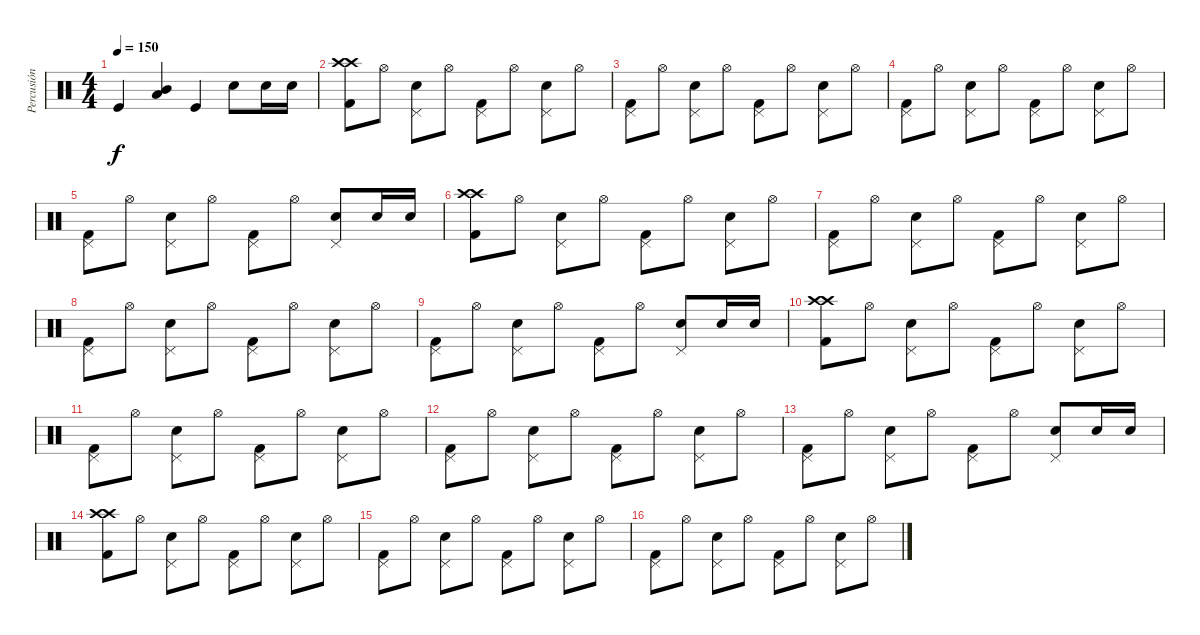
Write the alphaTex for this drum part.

\track ("Percusión" "Percusión") {instrument percussion}
\staff {score}
\articulation defaults
\ts (4 4)
\tempo 150
\clef neutral
\ks c "Kick (hit)".4{dy f}
("Low Tom (hit)" "Mid Tom (hit)").4 "Kick (hit)".4 "Electric Snare (hit)".8 "Electric Snare (hit)".16 "Electric Snare (hit)".16 |
("Crash high (hit)" "Crash high (hit)" "Kick (hit) 2").8 "Hi-Hat (open)".8 ("Pedal Hi-Hat (hit)" "Electric Snare (hit)").8 "Hi-Hat (open)".8 ("Pedal Hi-Hat (hit)" "Kick (hit) 2").8 "Hi-Hat (open)".8 ("Pedal Hi-Hat (hit)" "Electric Snare (hit)").8 "Hi-Hat (open)".8 |
("Pedal Hi-Hat (hit)" "Kick (hit) 2").8 "Hi-Hat (open)".8 ("Pedal Hi-Hat (hit)" "Electric Snare (hit)").8 "Hi-Hat (open)".8 ("Pedal Hi-Hat (hit)" "Kick (hit) 2").8 "Hi-Hat (open)".8 ("Pedal Hi-Hat (hit)" "Electric Snare (hit)").8 "Hi-Hat (open)".8 |
("Pedal Hi-Hat (hit)" "Kick (hit) 2").8 "Hi-Hat (open)".8 ("Pedal Hi-Hat (hit)" "Electric Snare (hit)").8 "Hi-Hat (open)".8 ("Pedal Hi-Hat (hit)" "Kick (hit) 2").8 "Hi-Hat (open)".8 ("Pedal Hi-Hat (hit)" "Electric Snare (hit)").8 "Hi-Hat (open)".8 |
("Pedal Hi-Hat (hit)" "Kick (hit) 2").8 "Hi-Hat (open)".8 ("Pedal Hi-Hat (hit)" "Electric Snare (hit)").8 "Hi-Hat (open)".8 ("Pedal Hi-Hat (hit)" "Kick (hit) 2").8 "Hi-Hat (open)".8 ("Pedal Hi-Hat (hit)" "Electric Snare (hit)").8 "Electric Snare (hit)".16 "Electric Snare (hit)".16 |
("Crash high (hit)" "Crash high (hit)" "Kick (hit) 2").8 "Hi-Hat (open)".8 ("Pedal Hi-Hat (hit)" "Electric Snare (hit)").8 "Hi-Hat (open)".8 ("Pedal Hi-Hat (hit)" "Kick (hit) 2").8 "Hi-Hat (open)".8 ("Pedal Hi-Hat (hit)" "Electric Snare (hit)").8 "Hi-Hat (open)".8 |
("Pedal Hi-Hat (hit)" "Kick (hit) 2").8 "Hi-Hat (open)".8 ("Pedal Hi-Hat (hit)" "Electric Snare (hit)").8 "Hi-Hat (open)".8 ("Pedal Hi-Hat (hit)" "Kick (hit) 2").8 "Hi-Hat (open)".8 ("Pedal Hi-Hat (hit)" "Electric Snare (hit)").8 "Hi-Hat (open)".8 |
("Pedal Hi-Hat (hit)" "Kick (hit) 2").8 "Hi-Hat (open)".8 ("Pedal Hi-Hat (hit)" "Electric Snare (hit)").8 "Hi-Hat (open)".8 ("Pedal Hi-Hat (hit)" "Kick (hit) 2").8 "Hi-Hat (open)".8 ("Pedal Hi-Hat (hit)" "Electric Snare (hit)").8 "Hi-Hat (open)".8 |
("Pedal Hi-Hat (hit)" "Kick (hit) 2").8 "Hi-Hat (open)".8 ("Pedal Hi-Hat (hit)" "Electric Snare (hit)").8 "Hi-Hat (open)".8 ("Pedal Hi-Hat (hit)" "Kick (hit) 2").8 "Hi-Hat (open)".8 ("Pedal Hi-Hat (hit)" "Electric Snare (hit)").8 "Electric Snare (hit)".16 "Electric Snare (hit)".16 |
("Crash high (hit)" "Crash high (hit)" "Kick (hit) 2").8 "Hi-Hat (open)".8 ("Pedal Hi-Hat (hit)" "Electric Snare (hit)").8 "Hi-Hat (open)".8 ("Pedal Hi-Hat (hit)" "Kick (hit) 2").8 "Hi-Hat (open)".8 ("Pedal Hi-Hat (hit)" "Electric Snare (hit)").8 "Hi-Hat (open)".8 |
("Pedal Hi-Hat (hit)" "Kick (hit) 2").8 "Hi-Hat (open)".8 ("Pedal Hi-Hat (hit)" "Electric Snare (hit)").8 "Hi-Hat (open)".8 ("Pedal Hi-Hat (hit)" "Kick (hit) 2").8 "Hi-Hat (open)".8 ("Pedal Hi-Hat (hit)" "Electric Snare (hit)").8 "Hi-Hat (open)".8 |
("Pedal Hi-Hat (hit)" "Kick (hit) 2").8 "Hi-Hat (open)".8 ("Pedal Hi-Hat (hit)" "Electric Snare (hit)").8 "Hi-Hat (open)".8 ("Pedal Hi-Hat (hit)" "Kick (hit) 2").8 "Hi-Hat (open)".8 ("Pedal Hi-Hat (hit)" "Electric Snare (hit)").8 "Hi-Hat (open)".8 |
("Pedal Hi-Hat (hit)" "Kick (hit) 2").8 "Hi-Hat (open)".8 ("Pedal Hi-Hat (hit)" "Electric Snare (hit)").8 "Hi-Hat (open)".8 ("Pedal Hi-Hat (hit)" "Kick (hit) 2").8 "Hi-Hat (open)".8 ("Pedal Hi-Hat (hit)" "Electric Snare (hit)").8 "Electric Snare (hit)".16 "Electric Snare (hit)".16 |
("Crash high (hit)" "Crash high (hit)" "Kick (hit) 2").8 "Hi-Hat (open)".8 ("Pedal Hi-Hat (hit)" "Electric Snare (hit)").8 "Hi-Hat (open)".8 ("Pedal Hi-Hat (hit)" "Kick (hit) 2").8 "Hi-Hat (open)".8 ("Pedal Hi-Hat (hit)" "Electric Snare (hit)").8 "Hi-Hat (open)".8 |
("Pedal Hi-Hat (hit)" "Kick (hit) 2").8 "Hi-Hat (open)".8 ("Pedal Hi-Hat (hit)" "Electric Snare (hit)").8 "Hi-Hat (open)".8 ("Pedal Hi-Hat (hit)" "Kick (hit) 2").8 "Hi-Hat (open)".8 ("Pedal Hi-Hat (hit)" "Electric Snare (hit)").8 "Hi-Hat (open)".8 |
("Pedal Hi-Hat (hit)" "Kick (hit) 2").8 "Hi-Hat (open)".8 ("Pedal Hi-Hat (hit)" "Electric Snare (hit)").8 "Hi-Hat (open)".8 ("Pedal Hi-Hat (hit)" "Kick (hit) 2").8 "Hi-Hat (open)".8 ("Pedal Hi-Hat (hit)" "Electric Snare (hit)").8 "Hi-Hat (open)".8
